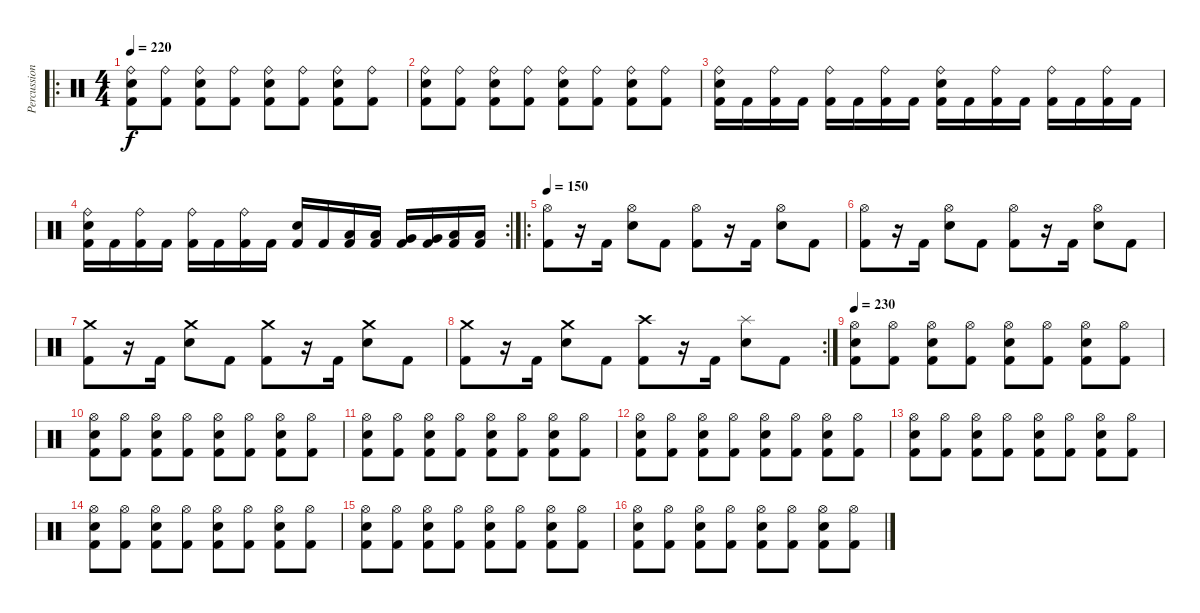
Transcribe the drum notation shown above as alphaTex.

\track ("Percussions" "Percussion") {instrument percussion}
\staff {score}
\articulation defaults
\ro
\ts (4 4)
\tempo 220
\clef neutral
\ks c
("Kick (hit) 2" "Snare (hit) 2" "Ride (bell)").8{dy f} ("Kick (hit) 2" "Ride (bell)").8 ("Kick (hit) 2" "Snare (hit) 2" "Ride (bell)").8 ("Kick (hit) 2" "Ride (bell)").8 ("Kick (hit) 2" "Snare (hit) 2" "Ride (bell)").8 ("Kick (hit) 2" "Ride (bell)").8 ("Kick (hit) 2" "Snare (hit) 2" "Ride (bell)").8 ("Kick (hit) 2" "Ride (bell)").8 |
("Kick (hit) 2" "Snare (hit) 2" "Ride (bell)").8 ("Kick (hit) 2" "Ride (bell)").8 ("Kick (hit) 2" "Snare (hit) 2" "Ride (bell)").8 ("Kick (hit) 2" "Ride (bell)").8 ("Kick (hit) 2" "Snare (hit) 2" "Ride (bell)").8 ("Kick (hit) 2" "Ride (bell)").8 ("Kick (hit) 2" "Snare (hit) 2" "Ride (bell)").8 ("Kick (hit) 2" "Ride (bell)").8 |
("Kick (hit) 2" "Snare (hit) 2" "Ride (bell)").16 "Kick (hit) 2".16 ("Kick (hit) 2" "Ride (bell)").16 "Kick (hit) 2".16 ("Kick (hit) 2" "Ride (bell)").16 "Kick (hit) 2".16 ("Kick (hit) 2" "Ride (bell)").16 "Kick (hit) 2".16 ("Kick (hit) 2" "Snare (hit) 2" "Ride (bell)").16 "Kick (hit) 2".16 ("Kick (hit) 2" "Ride (bell)").16 "Kick (hit) 2".16 ("Kick (hit) 2" "Ride (bell)").16 "Kick (hit) 2".16 ("Kick (hit) 2" "Ride (bell)").16 "Kick (hit) 2".16 |
\rc 2
("Kick (hit) 2" "Snare (hit) 2" "Ride (bell)").16 "Kick (hit) 2".16 ("Kick (hit) 2" "Ride (bell)").16 "Kick (hit) 2".16 ("Kick (hit) 2" "Ride (bell)").16 "Kick (hit) 2".16 ("Kick (hit) 2" "Ride (bell)").16 "Kick (hit) 2".16 ("Kick (hit) 2" "Snare (hit) 2").16 "Kick (hit) 2".16 ("Kick (hit) 2" "Low Tom (hit)").16 ("Kick (hit) 2" "Low Tom (hit)").16 ("Kick (hit) 2" "Very Low Tom (hit)").16 ("Kick (hit) 2" "Very Low Tom (hit)").16 ("Kick (hit) 2" "Low Floor Tom (hit)").16 ("Kick (hit) 2" "Low Floor Tom (hit)").16 |
\ro
\tempo 150
("Kick (hit) 2" "Hi-Hat (open)").8 r.16 "Kick (hit) 2".16 ("Snare (hit) 2" "Hi-Hat (open)").8 "Kick (hit) 2".8 ("Kick (hit) 2" "Hi-Hat (open)").8 r.16 "Kick (hit) 2".16 ("Snare (hit) 2" "Hi-Hat (open)").8 "Kick (hit) 2".8 |
("Kick (hit) 2" "Hi-Hat (open)").8 r.16 "Kick (hit) 2".16 ("Snare (hit) 2" "Hi-Hat (open)").8 "Kick (hit) 2".8 ("Kick (hit) 2" "Hi-Hat (open)").8 r.16 "Kick (hit) 2".16 ("Snare (hit) 2" "Hi-Hat (open)").8 "Kick (hit) 2".8 |
("Kick (hit) 2" "Crash medium (hit)").8 r.16 "Kick (hit) 2".16 ("Snare (hit) 2" "Crash medium (hit)").8 "Kick (hit) 2".8 ("Kick (hit) 2" "Crash medium (hit)").8 r.16 "Kick (hit) 2".16 ("Snare (hit) 2" "Crash medium (hit)").8 "Kick (hit) 2".8 |
\rc 2
("Kick (hit) 2" "Crash medium (hit)").8 r.16 "Kick (hit) 2".16 ("Snare (hit) 2" "Crash medium (hit)").8 "Kick (hit) 2".8 ("Kick (hit) 2" "Crash high (hit)").8 r.16 "Kick (hit) 2".16 ("Snare (hit) 2" "Splash (hit)").8 "Kick (hit) 2".8 |
\tempo 230
("Kick (hit) 2" "Snare (hit) 2" "Hi-Hat (open)").8 ("Kick (hit) 2" "Hi-Hat (open)").8 ("Kick (hit) 2" "Snare (hit) 2" "Hi-Hat (open)").8 ("Kick (hit) 2" "Hi-Hat (open)").8 ("Kick (hit) 2" "Snare (hit) 2" "Hi-Hat (open)").8 ("Kick (hit) 2" "Hi-Hat (open)").8 ("Kick (hit) 2" "Snare (hit) 2" "Hi-Hat (open)").8 ("Kick (hit) 2" "Hi-Hat (open)").8 |
("Kick (hit) 2" "Snare (hit) 2" "Hi-Hat (open)").8 ("Kick (hit) 2" "Hi-Hat (open)").8 ("Kick (hit) 2" "Snare (hit) 2" "Hi-Hat (open)").8 ("Kick (hit) 2" "Hi-Hat (open)").8 ("Kick (hit) 2" "Snare (hit) 2" "Hi-Hat (open)").8 ("Kick (hit) 2" "Hi-Hat (open)").8 ("Kick (hit) 2" "Snare (hit) 2" "Hi-Hat (open)").8 ("Kick (hit) 2" "Hi-Hat (open)").8 |
("Kick (hit) 2" "Snare (hit) 2" "Hi-Hat (open)").8 ("Kick (hit) 2" "Hi-Hat (open)").8 ("Kick (hit) 2" "Snare (hit) 2" "Hi-Hat (open)").8 ("Kick (hit) 2" "Hi-Hat (open)").8 ("Kick (hit) 2" "Snare (hit) 2" "Hi-Hat (open)").8 ("Kick (hit) 2" "Hi-Hat (open)").8 ("Kick (hit) 2" "Snare (hit) 2" "Hi-Hat (open)").8 ("Kick (hit) 2" "Hi-Hat (open)").8 |
("Kick (hit) 2" "Snare (hit) 2" "Hi-Hat (open)").8 ("Kick (hit) 2" "Hi-Hat (open)").8 ("Kick (hit) 2" "Snare (hit) 2" "Hi-Hat (open)").8 ("Kick (hit) 2" "Hi-Hat (open)").8 ("Kick (hit) 2" "Snare (hit) 2" "Hi-Hat (open)").8 ("Kick (hit) 2" "Hi-Hat (open)").8 ("Kick (hit) 2" "Snare (hit) 2" "Hi-Hat (open)").8 ("Kick (hit) 2" "Hi-Hat (open)").8 |
("Kick (hit) 2" "Snare (hit) 2" "Hi-Hat (open)").8 ("Kick (hit) 2" "Hi-Hat (open)").8 ("Kick (hit) 2" "Snare (hit) 2" "Hi-Hat (open)").8 ("Kick (hit) 2" "Hi-Hat (open)").8 ("Kick (hit) 2" "Snare (hit) 2" "Hi-Hat (open)").8 ("Kick (hit) 2" "Hi-Hat (open)").8 ("Kick (hit) 2" "Snare (hit) 2" "Hi-Hat (open)").8 ("Kick (hit) 2" "Hi-Hat (open)").8 |
("Kick (hit) 2" "Snare (hit) 2" "Hi-Hat (open)").8 ("Kick (hit) 2" "Hi-Hat (open)").8 ("Kick (hit) 2" "Snare (hit) 2" "Hi-Hat (open)").8 ("Kick (hit) 2" "Hi-Hat (open)").8 ("Kick (hit) 2" "Snare (hit) 2" "Hi-Hat (open)").8 ("Kick (hit) 2" "Hi-Hat (open)").8 ("Kick (hit) 2" "Snare (hit) 2" "Hi-Hat (open)").8 ("Kick (hit) 2" "Hi-Hat (open)").8 |
("Kick (hit) 2" "Snare (hit) 2" "Hi-Hat (open)").8 ("Kick (hit) 2" "Hi-Hat (open)").8 ("Kick (hit) 2" "Snare (hit) 2" "Hi-Hat (open)").8 ("Kick (hit) 2" "Hi-Hat (open)").8 ("Kick (hit) 2" "Snare (hit) 2" "Hi-Hat (open)").8 ("Kick (hit) 2" "Hi-Hat (open)").8 ("Kick (hit) 2" "Snare (hit) 2" "Hi-Hat (open)").8 ("Kick (hit) 2" "Hi-Hat (open)").8 |
("Kick (hit) 2" "Snare (hit) 2" "Hi-Hat (open)").8 ("Kick (hit) 2" "Hi-Hat (open)").8 ("Kick (hit) 2" "Snare (hit) 2" "Hi-Hat (open)").8 ("Kick (hit) 2" "Hi-Hat (open)").8 ("Kick (hit) 2" "Snare (hit) 2" "Hi-Hat (open)").8 ("Kick (hit) 2" "Hi-Hat (open)").8 ("Kick (hit) 2" "Snare (hit) 2" "Hi-Hat (open)").8 ("Kick (hit) 2" "Hi-Hat (open)").8
